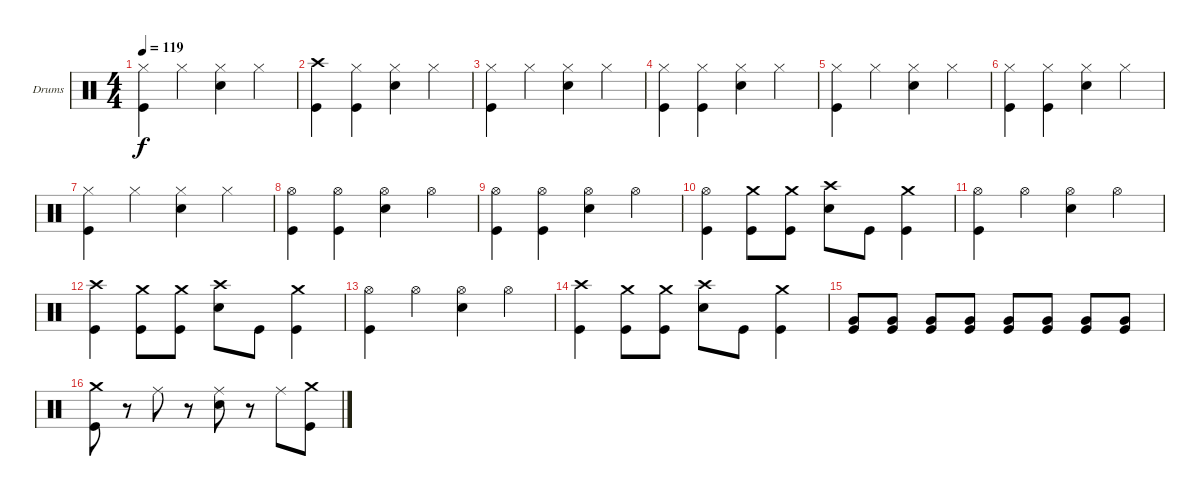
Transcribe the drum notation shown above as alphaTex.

\bracketExtendMode groupsimilarinstruments
\firstSystemTrackNameOrientation horizontal
\otherSystemsTrackNameOrientation horizontal
\track ("Drumkit" "Drums") {instrument percussion}
\staff {score}
\articulation defaults
\ts (4 4)
\tempo 119
\clef neutral
\ks c
("Hi-Hat (closed)" "Kick (hit)").4{dy f} "Hi-Hat (closed)".4 ("Hi-Hat (closed)" "Snare (hit) 2").4 "Hi-Hat (closed)".4 |
("Crash high (hit)" "Kick (hit)").4 ("Hi-Hat (closed)" "Kick (hit)").4 ("Hi-Hat (closed)" "Snare (hit) 2").4 "Hi-Hat (closed)".4 |
("Hi-Hat (closed)" "Kick (hit)").4 "Hi-Hat (closed)".4 ("Hi-Hat (closed)" "Snare (hit) 2").4 "Hi-Hat (closed)".4 |
("Hi-Hat (closed)" "Kick (hit)").4 ("Hi-Hat (closed)" "Kick (hit)").4 ("Hi-Hat (closed)" "Snare (hit) 2").4 "Hi-Hat (closed)".4 |
("Hi-Hat (closed)" "Kick (hit)").4 "Hi-Hat (closed)".4 ("Hi-Hat (closed)" "Snare (hit) 2").4 "Hi-Hat (closed)".4 |
("Hi-Hat (closed)" "Kick (hit)").4 ("Hi-Hat (closed)" "Kick (hit)").4 ("Hi-Hat (closed)" "Snare (hit) 2").4 "Hi-Hat (closed)".4 |
("Hi-Hat (closed)" "Kick (hit)").4 "Hi-Hat (closed)".4 ("Hi-Hat (closed)" "Snare (hit) 2").4 "Hi-Hat (closed)".4 |
("Hi-Hat (open)" "Kick (hit)").4 ("Hi-Hat (open)" "Kick (hit)").4 ("Hi-Hat (open)" "Snare (hit) 2").4 "Hi-Hat (open)".4 |
("Hi-Hat (open)" "Kick (hit)").4 ("Hi-Hat (open)" "Kick (hit)").4 ("Hi-Hat (open)" "Snare (hit) 2").4 "Hi-Hat (open)".4 |
("Hi-Hat (open)" "Kick (hit)").4 ("Crash medium (hit)" "Kick (hit)").8 ("Crash medium (hit)" "Kick (hit)").8 ("Crash high (hit)" "Snare (hit) 2").8 "Kick (hit)".8 ("Crash medium (hit)" "Kick (hit)").4 |
("Hi-Hat (open)" "Kick (hit)").4 "Hi-Hat (open)".4 ("Hi-Hat (open)" "Snare (hit) 2").4 "Hi-Hat (open)".4 |
("Crash high (hit)" "Kick (hit)").4 ("Crash medium (hit)" "Kick (hit)").8 ("Crash medium (hit)" "Kick (hit)").8 ("Crash high (hit)" "Snare (hit) 2").8 "Kick (hit)".8 ("Crash medium (hit)" "Kick (hit)").4 |
("Hi-Hat (open)" "Kick (hit)").4 "Hi-Hat (open)".4 ("Hi-Hat (open)" "Snare (hit) 2").4 "Hi-Hat (open)".4 |
("Crash high (hit)" "Kick (hit)").4 ("Crash medium (hit)" "Kick (hit)").8 ("Crash medium (hit)" "Kick (hit)").8 ("Crash high (hit)" "Snare (hit) 2").8 "Kick (hit)".8 ("Crash medium (hit)" "Kick (hit)").4 |
("Very Low Tom (hit)" "Kick (hit)").8 ("Very Low Tom (hit)" "Kick (hit)").8 ("Very Low Tom (hit)" "Kick (hit)").8 ("Very Low Tom (hit)" "Kick (hit)").8 ("Very Low Tom (hit)" "Kick (hit)").8 ("Very Low Tom (hit)" "Kick (hit)").8 ("Very Low Tom (hit)" "Kick (hit)").8 ("Very Low Tom (hit)" "Kick (hit)").8 |
("Crash medium (hit)" "Kick (hit)").8 r.8 "Ride (middle)".8 r.8 ("Ride (middle)" "Snare (hit) 2").8 r.8 "Ride (middle)".8 ("Crash medium (hit)" "Kick (hit)").8
